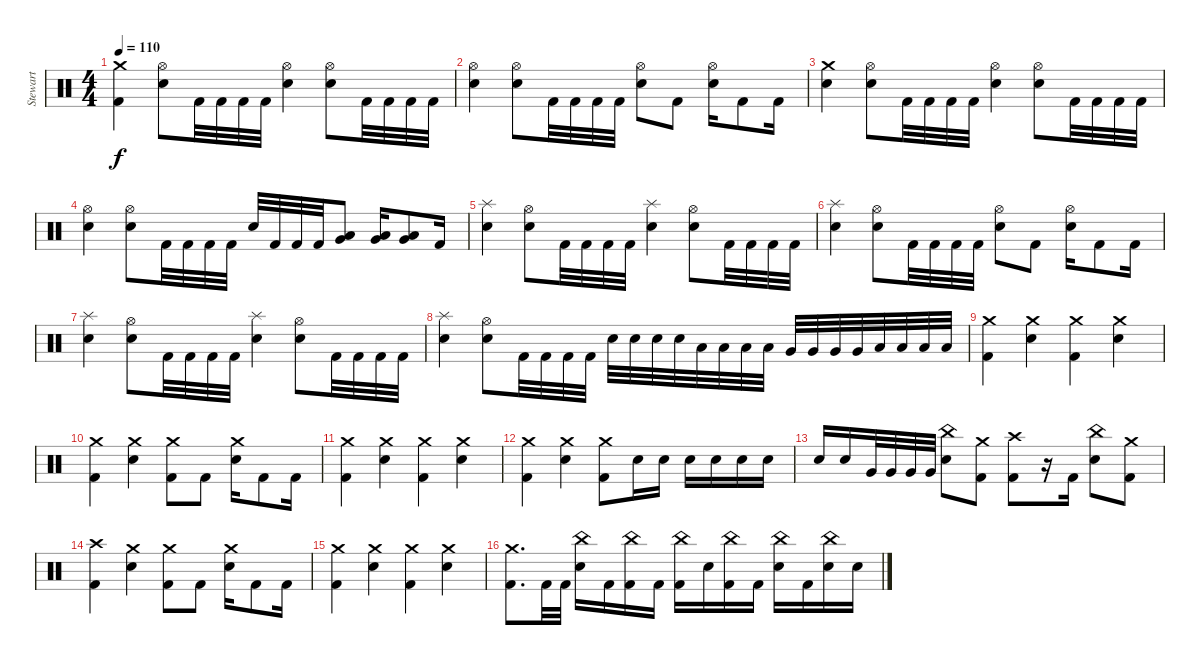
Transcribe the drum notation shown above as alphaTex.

\track ("Stewart" "Stewart") {instrument percussion}
\staff {score}
\articulation defaults
\ts (4 4)
\tempo 110
\clef neutral
\ks c
("Crash medium (hit)" "Kick (hit) 2").4{dy f} ("Hi-Hat (open)" "Electric Snare (hit)").8 "Kick (hit) 2".32 "Kick (hit) 2".32 "Kick (hit) 2".32 "Kick (hit) 2".32 ("Hi-Hat (open)" "Electric Snare (hit)").4 ("Hi-Hat (open)" "Electric Snare (hit)").8 "Kick (hit) 2".32 "Kick (hit) 2".32 "Kick (hit) 2".32 "Kick (hit) 2".32 |
("Hi-Hat (open)" "Electric Snare (hit)").4 ("Hi-Hat (open)" "Electric Snare (hit)").8 "Kick (hit) 2".32 "Kick (hit) 2".32 "Kick (hit) 2".32 "Kick (hit) 2".32 ("Hi-Hat (open)" "Electric Snare (hit)").8 "Kick (hit) 2".8 ("Hi-Hat (open)" "Electric Snare (hit)").16 "Kick (hit) 2".8 "Kick (hit) 2".16 |
("Crash medium (hit)" "Electric Snare (hit)").4 ("Hi-Hat (open)" "Electric Snare (hit)").8 "Kick (hit) 2".32 "Kick (hit) 2".32 "Kick (hit) 2".32 "Kick (hit) 2".32 ("Hi-Hat (open)" "Electric Snare (hit)").4 ("Hi-Hat (open)" "Electric Snare (hit)").8 "Kick (hit) 2".32 "Kick (hit) 2".32 "Kick (hit) 2".32 "Kick (hit) 2".32 |
("Hi-Hat (open)" "Electric Snare (hit)").4 ("Hi-Hat (open)" "Electric Snare (hit)").8 "Kick (hit) 2".32 "Kick (hit) 2".32 "Kick (hit) 2".32 "Kick (hit) 2".32 "Electric Snare (hit)".32 "Kick (hit) 2".32 "Kick (hit) 2".32 "Kick (hit) 2".32 ("Low Tom (hit)" "Very Low Tom (hit)").8 ("Low Tom (hit)" "Very Low Tom (hit)").16 ("Low Tom (hit)" "Very Low Tom (hit)").8 "Kick (hit) 2".16 |
("Splash (hit)" "Electric Snare (hit)").4 ("Hi-Hat (open)" "Electric Snare (hit)").8 "Kick (hit) 2".32 "Kick (hit) 2".32 "Kick (hit) 2".32 "Kick (hit) 2".32 ("Splash (hit)" "Electric Snare (hit)").4 ("Hi-Hat (open)" "Electric Snare (hit)").8 "Kick (hit) 2".32 "Kick (hit) 2".32 "Kick (hit) 2".32 "Kick (hit) 2".32 |
("Splash (hit)" "Electric Snare (hit)").4 ("Hi-Hat (open)" "Electric Snare (hit)").8 "Kick (hit) 2".32 "Kick (hit) 2".32 "Kick (hit) 2".32 "Kick (hit) 2".32 ("Hi-Hat (open)" "Electric Snare (hit)").8 "Kick (hit) 2".8 ("Hi-Hat (open)" "Electric Snare (hit)").16 "Kick (hit) 2".8 "Kick (hit) 2".16 |
("Splash (hit)" "Electric Snare (hit)").4 ("Hi-Hat (open)" "Electric Snare (hit)").8 "Kick (hit) 2".32 "Kick (hit) 2".32 "Kick (hit) 2".32 "Kick (hit) 2".32 ("Splash (hit)" "Electric Snare (hit)").4 ("Hi-Hat (open)" "Electric Snare (hit)").8 "Kick (hit) 2".32 "Kick (hit) 2".32 "Kick (hit) 2".32 "Kick (hit) 2".32 |
("Splash (hit)" "Electric Snare (hit)").4 ("Hi-Hat (open)" "Electric Snare (hit)").8 "Kick (hit) 2".32 "Kick (hit) 2".32 "Kick (hit) 2".32 "Kick (hit) 2".32 "Electric Snare (hit)".32 "Electric Snare (hit)".32 "Electric Snare (hit)".32 "Electric Snare (hit)".32 "Low Tom (hit)".32 "Low Tom (hit)".32 "Low Tom (hit)".32 "Low Tom (hit)".32 "Very Low Tom (hit)".32 "Very Low Tom (hit)".32 "Very Low Tom (hit)".32 "Very Low Tom (hit)".32 "Low Floor Tom (hit)".32 "Low Floor Tom (hit)".32 "Low Floor Tom (hit)".32 "Low Floor Tom (hit)".32 |
("Crash medium (hit)" "Kick (hit) 2").4 ("Crash medium (hit)" "Electric Snare (hit)").4 ("Crash medium (hit)" "Kick (hit) 2").4 ("Crash medium (hit)" "Electric Snare (hit)").4 |
("Crash medium (hit)" "Kick (hit) 2").4 ("Crash medium (hit)" "Electric Snare (hit)").4 ("Crash medium (hit)" "Kick (hit) 2").8 "Kick (hit) 2".8 ("Crash medium (hit)" "Electric Snare (hit)").16 "Kick (hit) 2".8 "Kick (hit) 2".16 |
("Crash medium (hit)" "Kick (hit) 2").4 ("Crash medium (hit)" "Electric Snare (hit)").4 ("Crash medium (hit)" "Kick (hit) 2").4 ("Crash medium (hit)" "Electric Snare (hit)").4 |
("Crash medium (hit)" "Kick (hit) 2").4 ("Crash medium (hit)" "Electric Snare (hit)").4 ("Crash medium (hit)" "Kick (hit) 2").8 "Electric Snare (hit)".16 "Electric Snare (hit)".16 "Electric Snare (hit)".16 "Electric Snare (hit)".16 "Electric Snare (hit)".16 "Electric Snare (hit)".16 |
"Electric Snare (hit)".16 "Electric Snare (hit)".16 "Very Low Tom (hit)".32 "Very Low Tom (hit)".32 "Very Low Tom (hit)".32 "Very Low Tom (hit)".32 ("China (hit)" "Electric Snare (hit)").8 ("Crash medium (hit)" "Kick (hit) 2").8 ("Crash high (hit)" "Kick (hit) 2").8 r.16 "Kick (hit) 2".16 ("China (hit)" "Electric Snare (hit)").8 ("Crash medium (hit)" "Kick (hit) 2").8 |
("Crash high (hit)" "Kick (hit) 2").4 ("Crash medium (hit)" "Electric Snare (hit)").4 ("Crash medium (hit)" "Kick (hit) 2").8 "Kick (hit) 2".8 ("Crash medium (hit)" "Electric Snare (hit)").16 "Kick (hit) 2".8 "Kick (hit) 2".16 |
("Crash medium (hit)" "Kick (hit) 2").4 ("Crash medium (hit)" "Electric Snare (hit)").4 ("Crash medium (hit)" "Kick (hit) 2").4 ("Crash medium (hit)" "Electric Snare (hit)").4 |
("Crash medium (hit)" "Kick (hit) 2").8{d} "Kick (hit) 2".32 "Kick (hit) 2".32 ("China (hit)" "Electric Snare (hit)").16 "Kick (hit) 2".16 ("China (hit)" "Kick (hit) 2").16 "Kick (hit) 2".16 ("China (hit)" "Kick (hit) 2").16 "Electric Snare (hit)".16 ("China (hit)" "Kick (hit) 2").16 "Kick (hit) 2".16 ("China (hit)" "Electric Snare (hit)").16 "Kick (hit) 2".16 ("China (hit)" "Electric Snare (hit)").16 "Electric Snare (hit)".16
